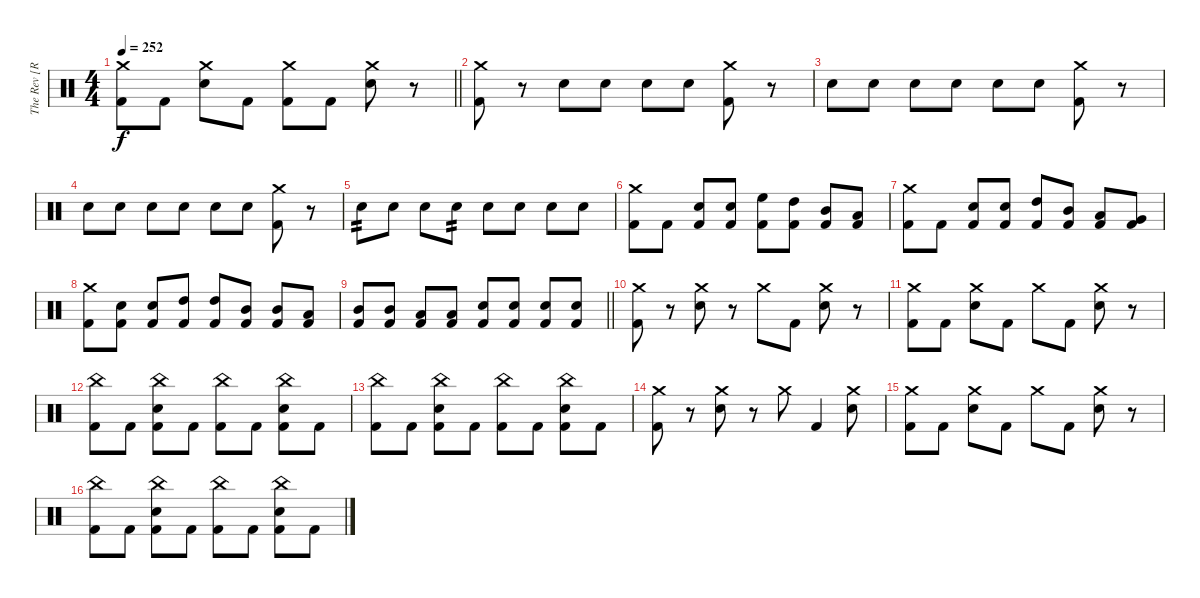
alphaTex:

\track ("The Rev [R.I.P]" "The Rev [R") {instrument percussion}
\staff {score}
\articulation defaults
\ts (4 4)
\tempo 252
\clef neutral
\barLineRight lightlight
\ks c
("Crash medium (hit)" "Kick (hit) 2").8{dy f} "Kick (hit) 2".8 ("Crash medium (hit)" "Electric Snare (hit)").8 "Kick (hit) 2".8 ("Crash medium (hit)" "Kick (hit) 2").8 "Kick (hit) 2".8 ("Crash medium (hit)" "Electric Snare (hit)").8 r.8 |
("Crash medium (hit)" "Kick (hit) 2").8 r.8 "Electric Snare (hit)".8 "Electric Snare (hit)".8 "Electric Snare (hit)".8 "Electric Snare (hit)".8 ("Crash medium (hit)" "Kick (hit) 2").8 r.8 |
"Electric Snare (hit)".8 "Electric Snare (hit)".8 "Electric Snare (hit)".8 "Electric Snare (hit)".8 "Electric Snare (hit)".8 "Electric Snare (hit)".8 ("Crash medium (hit)" "Kick (hit) 2").8 r.8 |
"Electric Snare (hit)".8 "Electric Snare (hit)".8 "Electric Snare (hit)".8 "Electric Snare (hit)".8 "Electric Snare (hit)".8 "Electric Snare (hit)".8 ("Crash medium (hit)" "Kick (hit) 2").8 r.8 |
"Electric Snare (hit)".8{tp 2} "Electric Snare (hit)".8 "Electric Snare (hit)".8 "Electric Snare (hit)".8{tp 2} "Electric Snare (hit)".8 "Electric Snare (hit)".8 "Electric Snare (hit)".8 "Electric Snare (hit)".8 |
("Crash medium (hit)" "Kick (hit) 2").8 "Kick (hit) 2".8 ("Electric Snare (hit)" "Kick (hit) 2").8 ("Electric Snare (hit)" "Kick (hit) 2").8 ("High Floor Tom (hit)" "Kick (hit) 2").8 ("High Tom (hit)" "Kick (hit) 2").8 ("Mid Tom (hit)" "Kick (hit) 2").8 ("Low Tom (hit)" "Kick (hit) 2").8 |
("Crash medium (hit)" "Kick (hit) 2").8 "Kick (hit) 2".8 ("Electric Snare (hit)" "Kick (hit) 2").8 ("Electric Snare (hit)" "Kick (hit) 2").8 ("High Tom (hit)" "Kick (hit) 2").8 ("Mid Tom (hit)" "Kick (hit) 2").8 ("Low Tom (hit)" "Kick (hit) 2").8 ("Very Low Tom (hit)" "Kick (hit) 2").8 |
("Crash medium (hit)" "Kick (hit) 2").8 ("Electric Snare (hit)" "Kick (hit) 2").8 ("Electric Snare (hit)" "Kick (hit) 2").8 ("High Tom (hit)" "Kick (hit) 2").8 ("High Tom (hit)" "Kick (hit) 2").8 ("Mid Tom (hit)" "Kick (hit) 2").8 ("Mid Tom (hit)" "Kick (hit) 2").8 ("Low Tom (hit)" "Kick (hit) 2").8 |
\barLineRight lightlight
("Mid Tom (hit)" "Kick (hit) 2").8 ("Mid Tom (hit)" "Kick (hit) 2").8 ("Low Tom (hit)" "Kick (hit) 2").8 ("Low Tom (hit)" "Kick (hit) 2").8 ("Electric Snare (hit)" "Kick (hit) 2").8 ("Electric Snare (hit)" "Kick (hit) 2").8 ("Electric Snare (hit)" "Kick (hit) 2").8 ("Electric Snare (hit)" "Kick (hit) 2").8 |
("Crash medium (hit)" "Kick (hit) 2").8 r.8 ("Crash medium (hit)" "Electric Snare (hit)").8 r.8 "Crash medium (hit)".8 "Kick (hit) 2".8 ("Crash medium (hit)" "Electric Snare (hit)").8 r.8 |
("Crash medium (hit)" "Kick (hit) 2").8 "Kick (hit) 2".8 ("Crash medium (hit)" "Electric Snare (hit)").8 "Kick (hit) 2".8 "Crash medium (hit)".8 "Kick (hit) 2".8 ("Crash medium (hit)" "Electric Snare (hit)").8 r.8 |
("China (hit)" "Kick (hit) 2").8 "Kick (hit) 2".8 ("China (hit)" "Electric Snare (hit)" "Kick (hit) 2").8 "Kick (hit) 2".8 ("China (hit)" "Kick (hit) 2").8 "Kick (hit) 2".8 ("China (hit)" "Electric Snare (hit)" "Kick (hit) 2").8 "Kick (hit) 2".8 |
("China (hit)" "Kick (hit) 2").8 "Kick (hit) 2".8 ("China (hit)" "Electric Snare (hit)" "Kick (hit) 2").8 "Kick (hit) 2".8 ("China (hit)" "Kick (hit) 2").8 "Kick (hit) 2".8 ("China (hit)" "Electric Snare (hit)" "Kick (hit) 2").8 "Kick (hit) 2".8 |
("Crash medium (hit)" "Kick (hit) 2").8 r.8 ("Crash medium (hit)" "Electric Snare (hit)").8 r.8 "Crash medium (hit)".8 "Kick (hit) 2".4 ("Crash medium (hit)" "Electric Snare (hit)").8 |
("Crash medium (hit)" "Kick (hit) 2").8 "Kick (hit) 2".8 ("Crash medium (hit)" "Electric Snare (hit)").8 "Kick (hit) 2".8 "Crash medium (hit)".8 "Kick (hit) 2".8 ("Crash medium (hit)" "Electric Snare (hit)").8 r.8 |
("China (hit)" "Kick (hit) 2").8 "Kick (hit) 2".8 ("China (hit)" "Electric Snare (hit)" "Kick (hit) 2").8 "Kick (hit) 2".8 ("China (hit)" "Kick (hit) 2").8 "Kick (hit) 2".8 ("China (hit)" "Electric Snare (hit)" "Kick (hit) 2").8 "Kick (hit) 2".8
